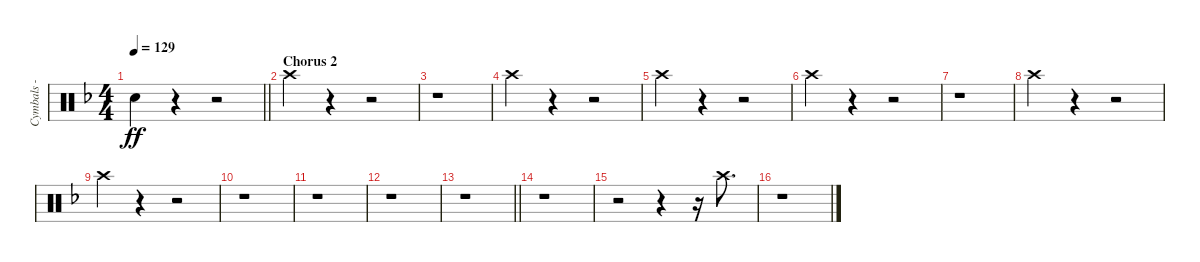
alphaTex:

\track ("Cymbals - crash" "Cymbals - ") {instrument percussion}
\staff {score}
\articulation defaults
\ts (4 4)
\tempo 129
\clef neutral
\barLineRight lightlight
\ks dminor "Electric Snare (hit)".4{dy ff}
r.4 r.2 |
\section ("" "Chorus 2")
"Crash high (hit)".4 r.4 r.2 |
r.1 |
"Crash high (hit)".4 r.4 r.2 |
"Crash high (hit)".4 r.4 r.2 |
"Crash high (hit)".4 r.4 r.2 |
r.1 |
"Crash high (hit)".4 r.4 r.2 |
"Crash high (hit)".4 r.4 r.2 |
r.1 |
r.1 |
r.1 |
\barLineRight lightlight
r.1 |
r.1 |
r.2 r.4 r.16 "Crash high (hit)".8{d} |
r.1
